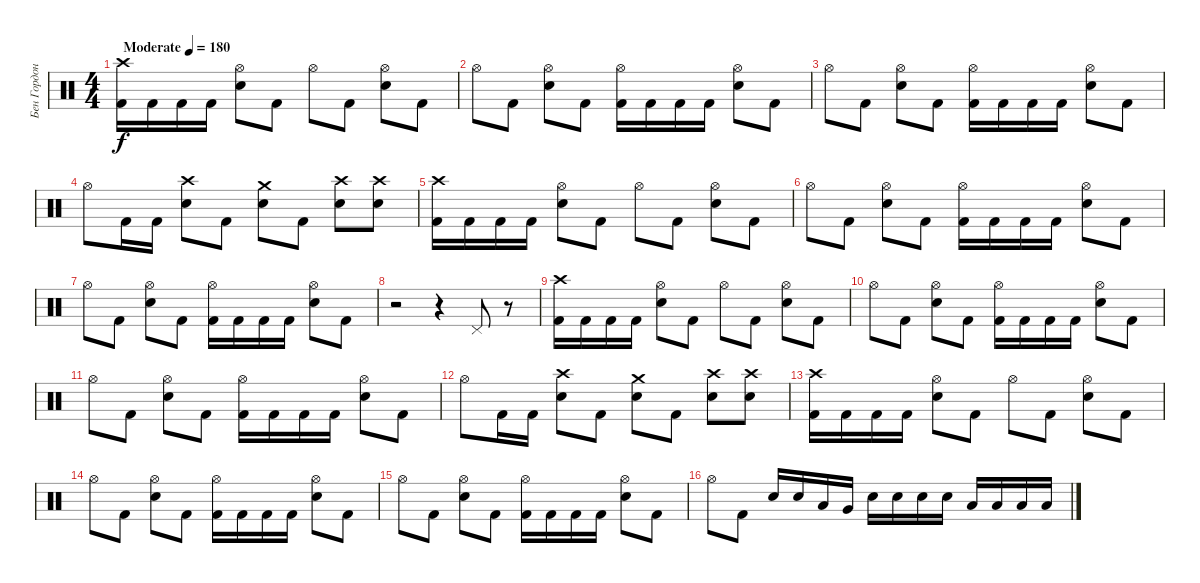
\track ("Бен Гордон" "Бен Гордон") {instrument percussion}
\staff {score}
\articulation defaults
\ts (4 4)
\tempo (180 "Moderate")
\clef neutral
\ks c
("Crash high (hit)" "Kick (hit) 2").16{dy f} "Kick (hit) 2".16 "Kick (hit) 2".16 "Kick (hit) 2".16 ("Hi-Hat (open)" "Electric Snare (hit)").8 "Kick (hit) 2".8 "Hi-Hat (open)".8 "Kick (hit) 2".8 ("Hi-Hat (open)" "Electric Snare (hit)").8 "Kick (hit) 2".8 |
"Hi-Hat (open)".8 "Kick (hit) 2".8 ("Hi-Hat (open)" "Electric Snare (hit)").8 "Kick (hit) 2".8 ("Hi-Hat (open)" "Kick (hit) 2").16 "Kick (hit) 2".16 "Kick (hit) 2".16 "Kick (hit) 2".16 ("Hi-Hat (open)" "Electric Snare (hit)").8 "Kick (hit) 2".8 |
"Hi-Hat (open)".8 "Kick (hit) 2".8 ("Hi-Hat (open)" "Electric Snare (hit)").8 "Kick (hit) 2".8 ("Hi-Hat (open)" "Kick (hit) 2").16 "Kick (hit) 2".16 "Kick (hit) 2".16 "Kick (hit) 2".16 ("Hi-Hat (open)" "Electric Snare (hit)").8 "Kick (hit) 2".8 |
"Hi-Hat (open)".8 "Kick (hit) 2".16 "Kick (hit) 2".16 ("Crash high (hit)" "Electric Snare (hit)").8 "Kick (hit) 2".8 ("Crash medium (hit)" "Electric Snare (hit)").8 "Kick (hit) 2".8 ("Crash high (hit)" "Electric Snare (hit)").8 ("Crash high (hit)" "Electric Snare (hit)").8 |
("Crash high (hit)" "Kick (hit) 2").16 "Kick (hit) 2".16 "Kick (hit) 2".16 "Kick (hit) 2".16 ("Hi-Hat (open)" "Electric Snare (hit)").8 "Kick (hit) 2".8 "Hi-Hat (open)".8 "Kick (hit) 2".8 ("Hi-Hat (open)" "Electric Snare (hit)").8 "Kick (hit) 2".8 |
"Hi-Hat (open)".8 "Kick (hit) 2".8 ("Hi-Hat (open)" "Electric Snare (hit)").8 "Kick (hit) 2".8 ("Hi-Hat (open)" "Kick (hit) 2").16 "Kick (hit) 2".16 "Kick (hit) 2".16 "Kick (hit) 2".16 ("Hi-Hat (open)" "Electric Snare (hit)").8 "Kick (hit) 2".8 |
"Hi-Hat (open)".8 "Kick (hit) 2".8 ("Hi-Hat (open)" "Electric Snare (hit)").8 "Kick (hit) 2".8 ("Hi-Hat (open)" "Kick (hit) 2").16 "Kick (hit) 2".16 "Kick (hit) 2".16 "Kick (hit) 2".16 ("Hi-Hat (open)" "Electric Snare (hit)").8 "Kick (hit) 2".8 |
r.2 r.4 "Pedal Hi-Hat (hit)".8 r.8 |
("Crash high (hit)" "Kick (hit) 2").16 "Kick (hit) 2".16 "Kick (hit) 2".16 "Kick (hit) 2".16 ("Hi-Hat (open)" "Electric Snare (hit)").8 "Kick (hit) 2".8 "Hi-Hat (open)".8 "Kick (hit) 2".8 ("Hi-Hat (open)" "Electric Snare (hit)").8 "Kick (hit) 2".8 |
"Hi-Hat (open)".8 "Kick (hit) 2".8 ("Hi-Hat (open)" "Electric Snare (hit)").8 "Kick (hit) 2".8 ("Hi-Hat (open)" "Kick (hit) 2").16 "Kick (hit) 2".16 "Kick (hit) 2".16 "Kick (hit) 2".16 ("Hi-Hat (open)" "Electric Snare (hit)").8 "Kick (hit) 2".8 |
"Hi-Hat (open)".8 "Kick (hit) 2".8 ("Hi-Hat (open)" "Electric Snare (hit)").8 "Kick (hit) 2".8 ("Hi-Hat (open)" "Kick (hit) 2").16 "Kick (hit) 2".16 "Kick (hit) 2".16 "Kick (hit) 2".16 ("Hi-Hat (open)" "Electric Snare (hit)").8 "Kick (hit) 2".8 |
"Hi-Hat (open)".8 "Kick (hit) 2".16 "Kick (hit) 2".16 ("Crash high (hit)" "Electric Snare (hit)").8 "Kick (hit) 2".8 ("Crash medium (hit)" "Electric Snare (hit)").8 "Kick (hit) 2".8 ("Crash high (hit)" "Electric Snare (hit)").8 ("Crash high (hit)" "Electric Snare (hit)").8 |
("Crash high (hit)" "Kick (hit) 2").16 "Kick (hit) 2".16 "Kick (hit) 2".16 "Kick (hit) 2".16 ("Hi-Hat (open)" "Electric Snare (hit)").8 "Kick (hit) 2".8 "Hi-Hat (open)".8 "Kick (hit) 2".8 ("Hi-Hat (open)" "Electric Snare (hit)").8 "Kick (hit) 2".8 |
"Hi-Hat (open)".8 "Kick (hit) 2".8 ("Hi-Hat (open)" "Electric Snare (hit)").8 "Kick (hit) 2".8 ("Hi-Hat (open)" "Kick (hit) 2").16 "Kick (hit) 2".16 "Kick (hit) 2".16 "Kick (hit) 2".16 ("Hi-Hat (open)" "Electric Snare (hit)").8 "Kick (hit) 2".8 |
"Hi-Hat (open)".8 "Kick (hit) 2".8 ("Hi-Hat (open)" "Electric Snare (hit)").8 "Kick (hit) 2".8 ("Hi-Hat (open)" "Kick (hit) 2").16 "Kick (hit) 2".16 "Kick (hit) 2".16 "Kick (hit) 2".16 ("Hi-Hat (open)" "Electric Snare (hit)").8 "Kick (hit) 2".8 |
"Hi-Hat (open)".8 "Kick (hit) 2".8 "Electric Snare (hit)".16 "Electric Snare (hit)".16 "Low Tom (hit)".16 "Very Low Tom (hit)".16 "Electric Snare (hit)".16 "Electric Snare (hit)".16 "Electric Snare (hit)".16 "Electric Snare (hit)".16 "Low Tom (hit)".16 "Low Tom (hit)".16 "Low Tom (hit)".16 "Low Tom (hit)".16
